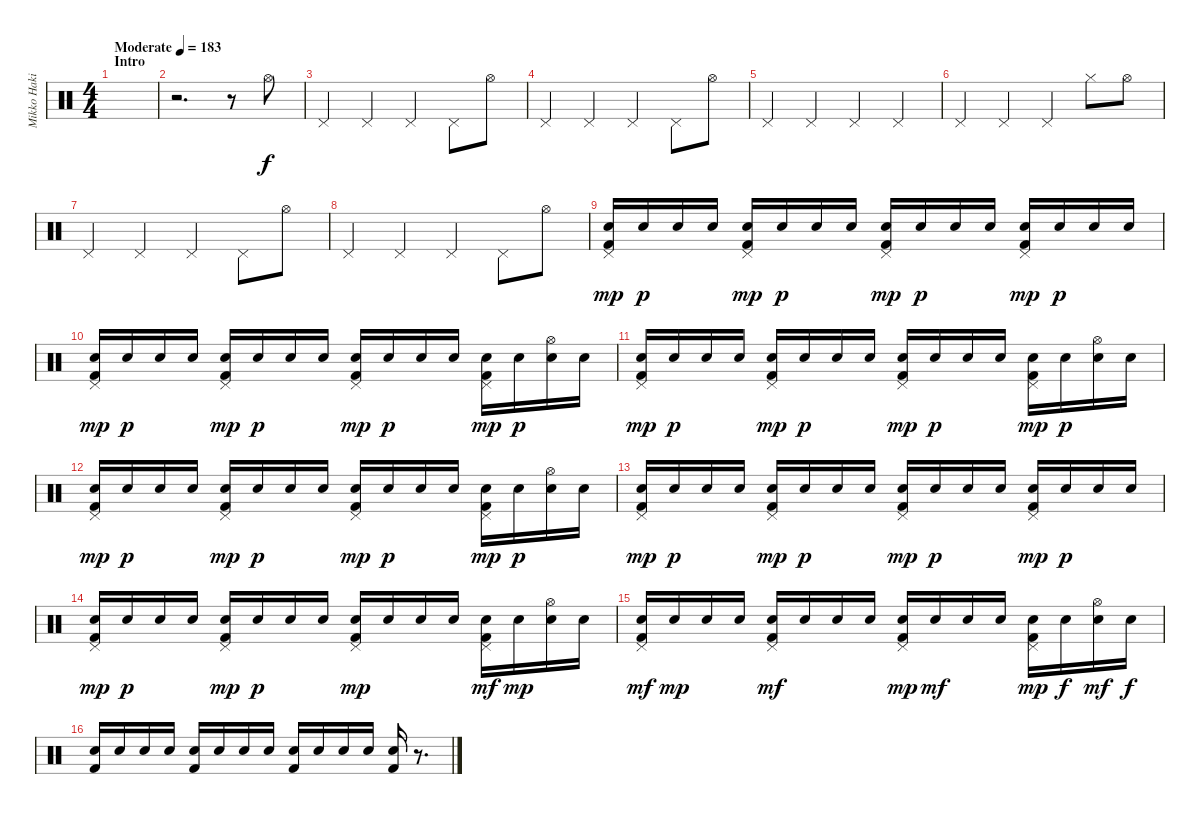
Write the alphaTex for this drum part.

\track ("Mikko Hakila - Drums" "Mikko Haki") {instrument percussion}
\staff {score}
\articulation defaults
\ts (4 4)
\section ("" "Intro")
\tempo (183 "Moderate")
\clef neutral
\ks c
|
r.2{d balance 12} r.8 "Hi-Hat (open)".8 |
"Pedal Hi-Hat (hit)".4 "Pedal Hi-Hat (hit)".4 "Pedal Hi-Hat (hit)".4 "Pedal Hi-Hat (hit)".8 "Hi-Hat (open)".8 |
"Pedal Hi-Hat (hit)".4 "Pedal Hi-Hat (hit)".4 "Pedal Hi-Hat (hit)".4 "Pedal Hi-Hat (hit)".8 "Hi-Hat (open)".8 |
"Pedal Hi-Hat (hit)".4 "Pedal Hi-Hat (hit)".4 "Pedal Hi-Hat (hit)".4 "Pedal Hi-Hat (hit)".4 |
"Pedal Hi-Hat (hit)".4 "Pedal Hi-Hat (hit)".4 "Pedal Hi-Hat (hit)".4 "Hi-Hat (closed)".8 "Hi-Hat (open)".8 |
"Pedal Hi-Hat (hit)".4 "Pedal Hi-Hat (hit)".4 "Pedal Hi-Hat (hit)".4 "Pedal Hi-Hat (hit)".8 "Hi-Hat (open)".8 |
"Pedal Hi-Hat (hit)".4 "Pedal Hi-Hat (hit)".4 "Pedal Hi-Hat (hit)".4 "Pedal Hi-Hat (hit)".8 "Hi-Hat (open)".8 |
("Pedal Hi-Hat (hit)" "Electric Snare (hit)" "Kick (hit) 2").16{dy mp balance 8} "Electric Snare (hit)".16{dy p} "Electric Snare (hit)".16 "Electric Snare (hit)".16 ("Pedal Hi-Hat (hit)" "Electric Snare (hit)" "Kick (hit) 2").16{dy mp} "Electric Snare (hit)".16{dy p} "Electric Snare (hit)".16 "Electric Snare (hit)".16 ("Pedal Hi-Hat (hit)" "Electric Snare (hit)" "Kick (hit) 2").16{dy mp} "Electric Snare (hit)".16{dy p} "Electric Snare (hit)".16 "Electric Snare (hit)".16 ("Pedal Hi-Hat (hit)" "Electric Snare (hit)" "Kick (hit) 2").16{dy mp} "Electric Snare (hit)".16{dy p} "Electric Snare (hit)".16 "Electric Snare (hit)".16 |
("Pedal Hi-Hat (hit)" "Electric Snare (hit)" "Kick (hit) 2").16{dy mp} "Electric Snare (hit)".16{dy p} "Electric Snare (hit)".16 "Electric Snare (hit)".16 ("Pedal Hi-Hat (hit)" "Electric Snare (hit)" "Kick (hit) 2").16{dy mp} "Electric Snare (hit)".16{dy p} "Electric Snare (hit)".16 "Electric Snare (hit)".16 ("Pedal Hi-Hat (hit)" "Electric Snare (hit)" "Kick (hit) 2").16{dy mp} "Electric Snare (hit)".16{dy p} "Electric Snare (hit)".16 "Electric Snare (hit)".16 ("Pedal Hi-Hat (hit)" "Electric Snare (hit)" "Kick (hit) 2").16{dy mp} "Electric Snare (hit)".16{dy p} ("Hi-Hat (open)" "Electric Snare (hit)").16 "Electric Snare (hit)".16 |
("Pedal Hi-Hat (hit)" "Electric Snare (hit)" "Kick (hit) 2").16{dy mp} "Electric Snare (hit)".16{dy p} "Electric Snare (hit)".16 "Electric Snare (hit)".16 ("Pedal Hi-Hat (hit)" "Electric Snare (hit)" "Kick (hit) 2").16{dy mp} "Electric Snare (hit)".16{dy p} "Electric Snare (hit)".16 "Electric Snare (hit)".16 ("Pedal Hi-Hat (hit)" "Electric Snare (hit)" "Kick (hit) 2").16{dy mp} "Electric Snare (hit)".16{dy p} "Electric Snare (hit)".16 "Electric Snare (hit)".16 ("Pedal Hi-Hat (hit)" "Electric Snare (hit)" "Kick (hit) 2").16{dy mp} "Electric Snare (hit)".16{dy p} ("Hi-Hat (open)" "Electric Snare (hit)").16 "Electric Snare (hit)".16 |
("Pedal Hi-Hat (hit)" "Electric Snare (hit)" "Kick (hit) 2").16{dy mp} "Electric Snare (hit)".16{dy p} "Electric Snare (hit)".16 "Electric Snare (hit)".16 ("Pedal Hi-Hat (hit)" "Electric Snare (hit)" "Kick (hit) 2").16{dy mp} "Electric Snare (hit)".16{dy p} "Electric Snare (hit)".16 "Electric Snare (hit)".16 ("Pedal Hi-Hat (hit)" "Electric Snare (hit)" "Kick (hit) 2").16{dy mp} "Electric Snare (hit)".16{dy p} "Electric Snare (hit)".16 "Electric Snare (hit)".16 ("Pedal Hi-Hat (hit)" "Electric Snare (hit)" "Kick (hit) 2").16{dy mp} "Electric Snare (hit)".16{dy p} ("Hi-Hat (open)" "Electric Snare (hit)").16 "Electric Snare (hit)".16 |
("Pedal Hi-Hat (hit)" "Electric Snare (hit)" "Kick (hit) 2").16{dy mp} "Electric Snare (hit)".16{dy p} "Electric Snare (hit)".16 "Electric Snare (hit)".16 ("Pedal Hi-Hat (hit)" "Electric Snare (hit)" "Kick (hit) 2").16{dy mp} "Electric Snare (hit)".16{dy p} "Electric Snare (hit)".16 "Electric Snare (hit)".16 ("Pedal Hi-Hat (hit)" "Electric Snare (hit)" "Kick (hit) 2").16{dy mp} "Electric Snare (hit)".16{dy p} "Electric Snare (hit)".16 "Electric Snare (hit)".16 ("Pedal Hi-Hat (hit)" "Electric Snare (hit)" "Kick (hit) 2").16{dy mp} "Electric Snare (hit)".16{dy p} "Electric Snare (hit)".16 "Electric Snare (hit)".16 |
("Pedal Hi-Hat (hit)" "Electric Snare (hit)" "Kick (hit) 2").16{dy mp} "Electric Snare (hit)".16{dy p} "Electric Snare (hit)".16 "Electric Snare (hit)".16 ("Pedal Hi-Hat (hit)" "Electric Snare (hit)" "Kick (hit) 2").16{dy mp} "Electric Snare (hit)".16{dy p} "Electric Snare (hit)".16 "Electric Snare (hit)".16 ("Pedal Hi-Hat (hit)" "Electric Snare (hit)" "Kick (hit) 2").16{dy mp} "Electric Snare (hit)".16 "Electric Snare (hit)".16 "Electric Snare (hit)".16 ("Pedal Hi-Hat (hit)" "Electric Snare (hit)" "Kick (hit) 2").16{dy mf} "Electric Snare (hit)".16{dy mp} ("Hi-Hat (open)" "Electric Snare (hit)").16 "Electric Snare (hit)".16 |
("Pedal Hi-Hat (hit)" "Electric Snare (hit)" "Kick (hit) 2").16{dy mf} "Electric Snare (hit)".16{dy mp} "Electric Snare (hit)".16 "Electric Snare (hit)".16 ("Pedal Hi-Hat (hit)" "Electric Snare (hit)" "Kick (hit) 2").16{dy mf} "Electric Snare (hit)".16 "Electric Snare (hit)".16 "Electric Snare (hit)".16 ("Pedal Hi-Hat (hit)" "Electric Snare (hit)" "Kick (hit) 2").16{dy mp} "Electric Snare (hit)".16{dy mf} "Electric Snare (hit)".16 "Electric Snare (hit)".16 ("Pedal Hi-Hat (hit)" "Electric Snare (hit)" "Kick (hit) 2").16{dy mp} "Electric Snare (hit)".16{dy f} ("Hi-Hat (open)" "Electric Snare (hit)").16{dy mf} "Electric Snare (hit)".16{dy f} |
("Electric Snare (hit)" "Kick (hit) 2").16 "Electric Snare (hit)".16 "Electric Snare (hit)".16 "Electric Snare (hit)".16 ("Electric Snare (hit)" "Kick (hit) 2").16 "Electric Snare (hit)".16 "Electric Snare (hit)".16 "Electric Snare (hit)".16 ("Electric Snare (hit)" "Kick (hit) 2").16 "Electric Snare (hit)".16 "Electric Snare (hit)".16 "Electric Snare (hit)".16 ("Electric Snare (hit)" "Kick (hit) 2").16 r.8{d}
